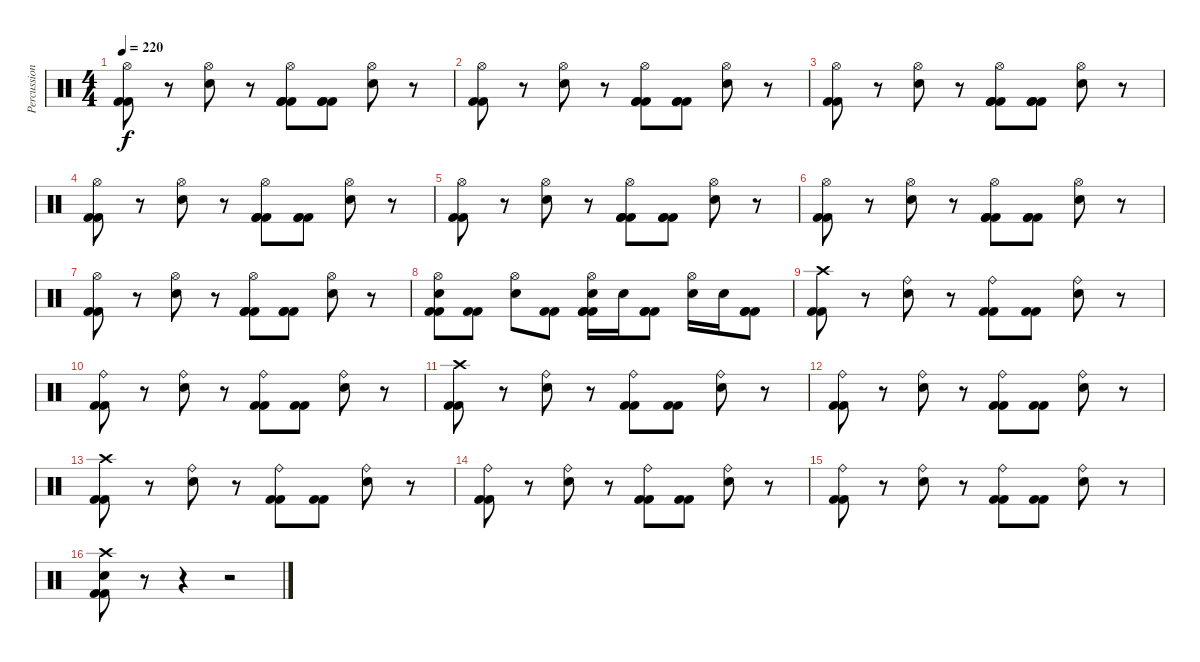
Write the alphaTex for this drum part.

\track ("Percussion" "Percussion") {instrument percussion}
\staff {score}
\articulation defaults
\ts (4 4)
\tempo 220
\clef neutral
\ks c
("Hi-Hat (open)" "Kick (hit) 2" "Kick (hit) 2").8{dy f} r.8 ("Hi-Hat (open)" "Electric Snare (hit)").8 r.8 ("Hi-Hat (open)" "Kick (hit) 2" "Kick (hit) 2" "Kick (hit) 2").8 ("Kick (hit) 2" "Kick (hit) 2" "Kick (hit) 2").8 ("Hi-Hat (open)" "Electric Snare (hit)").8 r.8 |
("Hi-Hat (open)" "Kick (hit) 2" "Kick (hit) 2").8 r.8 ("Hi-Hat (open)" "Electric Snare (hit)").8 r.8 ("Hi-Hat (open)" "Kick (hit) 2" "Kick (hit) 2" "Kick (hit) 2").8 ("Kick (hit) 2" "Kick (hit) 2" "Kick (hit) 2").8 ("Hi-Hat (open)" "Electric Snare (hit)").8 r.8 |
("Hi-Hat (open)" "Kick (hit) 2" "Kick (hit) 2").8 r.8 ("Hi-Hat (open)" "Electric Snare (hit)").8 r.8 ("Hi-Hat (open)" "Kick (hit) 2" "Kick (hit) 2" "Kick (hit) 2").8 ("Kick (hit) 2" "Kick (hit) 2" "Kick (hit) 2").8 ("Hi-Hat (open)" "Electric Snare (hit)").8 r.8 |
("Hi-Hat (open)" "Kick (hit) 2" "Kick (hit) 2").8 r.8 ("Hi-Hat (open)" "Electric Snare (hit)").8 r.8 ("Hi-Hat (open)" "Kick (hit) 2" "Kick (hit) 2" "Kick (hit) 2").8 ("Kick (hit) 2" "Kick (hit) 2" "Kick (hit) 2").8 ("Hi-Hat (open)" "Electric Snare (hit)").8 r.8 |
("Hi-Hat (open)" "Kick (hit) 2" "Kick (hit) 2").8 r.8 ("Hi-Hat (open)" "Electric Snare (hit)").8 r.8 ("Hi-Hat (open)" "Kick (hit) 2" "Kick (hit) 2" "Kick (hit) 2").8 ("Kick (hit) 2" "Kick (hit) 2" "Kick (hit) 2").8 ("Hi-Hat (open)" "Electric Snare (hit)").8 r.8 |
("Hi-Hat (open)" "Kick (hit) 2" "Kick (hit) 2").8 r.8 ("Hi-Hat (open)" "Electric Snare (hit)").8 r.8 ("Hi-Hat (open)" "Kick (hit) 2" "Kick (hit) 2" "Kick (hit) 2").8 ("Kick (hit) 2" "Kick (hit) 2" "Kick (hit) 2").8 ("Hi-Hat (open)" "Electric Snare (hit)").8 r.8 |
("Hi-Hat (open)" "Kick (hit) 2" "Kick (hit) 2").8 r.8 ("Hi-Hat (open)" "Electric Snare (hit)").8 r.8 ("Hi-Hat (open)" "Kick (hit) 2" "Kick (hit) 2" "Kick (hit) 2").8 ("Kick (hit) 2" "Kick (hit) 2" "Kick (hit) 2").8 ("Hi-Hat (open)" "Electric Snare (hit)").8 r.8 |
("Hi-Hat (open)" "Electric Snare (hit)" "Kick (hit) 2" "Kick (hit) 2").8 ("Kick (hit) 2" "Kick (hit) 2").8 ("Hi-Hat (open)" "Electric Snare (hit)").8 ("Kick (hit) 2" "Kick (hit) 2").8 ("Hi-Hat (open)" "Electric Snare (hit)" "Kick (hit) 2" "Kick (hit) 2" "Kick (hit) 2").16 "Electric Snare (hit)".16 ("Kick (hit) 2" "Kick (hit) 2" "Kick (hit) 2").8 ("Hi-Hat (open)" "Electric Snare (hit)").16 "Electric Snare (hit)".16 ("Kick (hit) 2" "Kick (hit) 2" "Kick (hit) 2").8 |
("Crash high (hit)" "Kick (hit) 2" "Kick (hit) 2").8 r.8 ("Ride (bell)" "Electric Snare (hit)").8 r.8 ("Ride (bell)" "Kick (hit) 2" "Kick (hit) 2").8 ("Kick (hit) 2" "Kick (hit) 2").8 ("Ride (bell)" "Electric Snare (hit)").8 r.8 |
("Ride (bell)" "Kick (hit) 2" "Kick (hit) 2").8 r.8 ("Ride (bell)" "Electric Snare (hit)").8 r.8 ("Ride (bell)" "Kick (hit) 2" "Kick (hit) 2").8 ("Kick (hit) 2" "Kick (hit) 2").8 ("Ride (bell)" "Electric Snare (hit)").8 r.8 |
("Crash high (hit)" "Kick (hit) 2" "Kick (hit) 2").8 r.8 ("Ride (bell)" "Electric Snare (hit)").8 r.8 ("Ride (bell)" "Kick (hit) 2" "Kick (hit) 2").8 ("Kick (hit) 2" "Kick (hit) 2").8 ("Ride (bell)" "Electric Snare (hit)").8 r.8 |
("Ride (bell)" "Kick (hit) 2" "Kick (hit) 2").8 r.8 ("Ride (bell)" "Electric Snare (hit)").8 r.8 ("Ride (bell)" "Kick (hit) 2" "Kick (hit) 2").8 ("Kick (hit) 2" "Kick (hit) 2").8 ("Ride (bell)" "Electric Snare (hit)").8 r.8 |
("Crash high (hit)" "Kick (hit) 2" "Kick (hit) 2").8 r.8 ("Ride (bell)" "Electric Snare (hit)").8 r.8 ("Ride (bell)" "Kick (hit) 2" "Kick (hit) 2").8 ("Kick (hit) 2" "Kick (hit) 2").8 ("Ride (bell)" "Electric Snare (hit)").8 r.8 |
("Ride (bell)" "Kick (hit) 2" "Kick (hit) 2").8 r.8 ("Ride (bell)" "Electric Snare (hit)").8 r.8 ("Ride (bell)" "Kick (hit) 2" "Kick (hit) 2").8 ("Kick (hit) 2" "Kick (hit) 2").8 ("Ride (bell)" "Electric Snare (hit)").8 r.8 |
("Ride (bell)" "Kick (hit) 2" "Kick (hit) 2").8 r.8 ("Ride (bell)" "Electric Snare (hit)").8 r.8 ("Ride (bell)" "Kick (hit) 2" "Kick (hit) 2").8 ("Kick (hit) 2" "Kick (hit) 2").8 ("Ride (bell)" "Electric Snare (hit)").8 r.8 |
("Crash high (hit)" "Electric Snare (hit)" "Kick (hit) 2" "Kick (hit) 2").8 r.8 r.4 r.2
